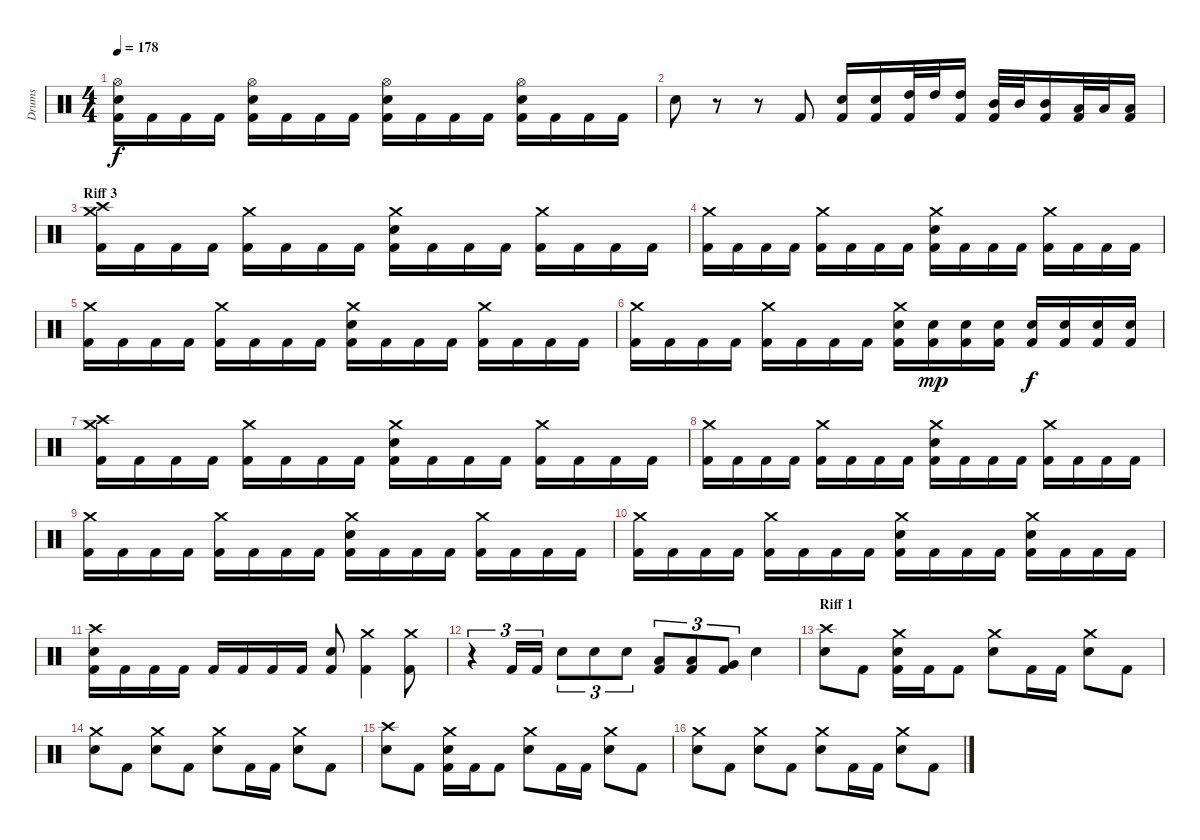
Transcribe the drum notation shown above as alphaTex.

\track ("Drums" "Drums") {instrument percussion}
\staff {score}
\articulation defaults
\ts (4 4)
\tempo 178
\clef neutral
\ks c
("Hi-Hat (open)" "Electric Snare (hit)" "Kick (hit) 2").16{dy f} "Kick (hit) 2".16 "Kick (hit) 2".16 "Kick (hit) 2".16 ("Hi-Hat (open)" "Electric Snare (hit)" "Kick (hit) 2").16 "Kick (hit) 2".16 "Kick (hit) 2".16 "Kick (hit) 2".16 ("Hi-Hat (open)" "Electric Snare (hit)" "Kick (hit) 2").16 "Kick (hit) 2".16 "Kick (hit) 2".16 "Kick (hit) 2".16 ("Hi-Hat (open)" "Electric Snare (hit)" "Kick (hit) 2").16 "Kick (hit) 2".16 "Kick (hit) 2".16 "Kick (hit) 2".16 |
"Electric Snare (hit)".8 r.8 r.8 "Kick (hit) 2".8 ("Electric Snare (hit)" "Kick (hit) 2").16 ("Electric Snare (hit)" "Kick (hit) 2").16 ("High Tom (hit)" "Kick (hit) 2").32 "High Tom (hit)".32 ("High Tom (hit)" "Kick (hit) 2").16 ("Mid Tom (hit)" "Kick (hit) 2").32 "Mid Tom (hit)".32 ("Mid Tom (hit)" "Kick (hit) 2").16 ("Low Tom (hit)" "Kick (hit) 2").32 "Low Tom (hit)".32 ("Low Tom (hit)" "Kick (hit) 2").16 |
\section ("" "Riff 3")
("Crash high (hit)" "Crash medium (hit)" "Kick (hit) 2").16 "Kick (hit) 2".16 "Kick (hit) 2".16 "Kick (hit) 2".16 ("Crash medium (hit)" "Kick (hit) 2").16 "Kick (hit) 2".16 "Kick (hit) 2".16 "Kick (hit) 2".16 ("Crash medium (hit)" "Electric Snare (hit)" "Kick (hit) 2").16 "Kick (hit) 2".16 "Kick (hit) 2".16 "Kick (hit) 2".16 ("Crash medium (hit)" "Kick (hit) 2").16 "Kick (hit) 2".16 "Kick (hit) 2".16 "Kick (hit) 2".16 |
("Crash medium (hit)" "Kick (hit) 2").16 "Kick (hit) 2".16 "Kick (hit) 2".16 "Kick (hit) 2".16 ("Crash medium (hit)" "Kick (hit) 2").16 "Kick (hit) 2".16 "Kick (hit) 2".16 "Kick (hit) 2".16 ("Crash medium (hit)" "Electric Snare (hit)" "Kick (hit) 2").16 "Kick (hit) 2".16 "Kick (hit) 2".16 "Kick (hit) 2".16 ("Crash medium (hit)" "Kick (hit) 2").16 "Kick (hit) 2".16 "Kick (hit) 2".16 "Kick (hit) 2".16 |
("Crash medium (hit)" "Kick (hit) 2").16 "Kick (hit) 2".16 "Kick (hit) 2".16 "Kick (hit) 2".16 ("Crash medium (hit)" "Kick (hit) 2").16 "Kick (hit) 2".16 "Kick (hit) 2".16 "Kick (hit) 2".16 ("Crash medium (hit)" "Electric Snare (hit)" "Kick (hit) 2").16 "Kick (hit) 2".16 "Kick (hit) 2".16 "Kick (hit) 2".16 ("Crash medium (hit)" "Kick (hit) 2").16 "Kick (hit) 2".16 "Kick (hit) 2".16 "Kick (hit) 2".16 |
("Crash medium (hit)" "Kick (hit) 2").16 "Kick (hit) 2".16 "Kick (hit) 2".16 "Kick (hit) 2".16 ("Crash medium (hit)" "Kick (hit) 2").16 "Kick (hit) 2".16 "Kick (hit) 2".16 "Kick (hit) 2".16 ("Crash medium (hit)" "Electric Snare (hit)" "Kick (hit) 2").16 ("Electric Snare (hit)" "Kick (hit) 2").16{dy mp} ("Electric Snare (hit)" "Kick (hit) 2").16 ("Electric Snare (hit)" "Kick (hit) 2").16 ("Electric Snare (hit)" "Kick (hit) 2").16{dy f} ("Electric Snare (hit)" "Kick (hit) 2").16 ("Electric Snare (hit)" "Kick (hit) 2").16 ("Electric Snare (hit)" "Kick (hit) 2").16 |
("Crash high (hit)" "Crash medium (hit)" "Kick (hit) 2").16 "Kick (hit) 2".16 "Kick (hit) 2".16 "Kick (hit) 2".16 ("Crash medium (hit)" "Kick (hit) 2").16 "Kick (hit) 2".16 "Kick (hit) 2".16 "Kick (hit) 2".16 ("Crash medium (hit)" "Electric Snare (hit)" "Kick (hit) 2").16 "Kick (hit) 2".16 "Kick (hit) 2".16 "Kick (hit) 2".16 ("Crash medium (hit)" "Kick (hit) 2").16 "Kick (hit) 2".16 "Kick (hit) 2".16 "Kick (hit) 2".16 |
("Crash medium (hit)" "Kick (hit) 2").16 "Kick (hit) 2".16 "Kick (hit) 2".16 "Kick (hit) 2".16 ("Crash medium (hit)" "Kick (hit) 2").16 "Kick (hit) 2".16 "Kick (hit) 2".16 "Kick (hit) 2".16 ("Crash medium (hit)" "Electric Snare (hit)" "Kick (hit) 2").16 "Kick (hit) 2".16 "Kick (hit) 2".16 "Kick (hit) 2".16 ("Crash medium (hit)" "Kick (hit) 2").16 "Kick (hit) 2".16 "Kick (hit) 2".16 "Kick (hit) 2".16 |
("Crash medium (hit)" "Kick (hit) 2").16 "Kick (hit) 2".16 "Kick (hit) 2".16 "Kick (hit) 2".16 ("Crash medium (hit)" "Kick (hit) 2").16 "Kick (hit) 2".16 "Kick (hit) 2".16 "Kick (hit) 2".16 ("Crash medium (hit)" "Electric Snare (hit)" "Kick (hit) 2").16 "Kick (hit) 2".16 "Kick (hit) 2".16 "Kick (hit) 2".16 ("Crash medium (hit)" "Kick (hit) 2").16 "Kick (hit) 2".16 "Kick (hit) 2".16 "Kick (hit) 2".16 |
("Crash medium (hit)" "Kick (hit) 2").16 "Kick (hit) 2".16 "Kick (hit) 2".16 "Kick (hit) 2".16 ("Crash medium (hit)" "Kick (hit) 2").16 "Kick (hit) 2".16 "Kick (hit) 2".16 "Kick (hit) 2".16 ("Crash medium (hit)" "Electric Snare (hit)" "Kick (hit) 2").16 "Kick (hit) 2".16 "Kick (hit) 2".16 "Kick (hit) 2".16 ("Crash medium (hit)" "Electric Snare (hit)" "Kick (hit) 2").16 "Kick (hit) 2".16 "Kick (hit) 2".16 "Kick (hit) 2".16 |
("Crash high (hit)" "Electric Snare (hit)" "Kick (hit) 2").16 "Kick (hit) 2".16 "Kick (hit) 2".16 "Kick (hit) 2".16 "Kick (hit) 2".16 "Kick (hit) 2".16 "Kick (hit) 2".16 "Kick (hit) 2".16 ("Electric Snare (hit)" "Kick (hit) 2").8 ("Crash medium (hit)" "Kick (hit) 2").4 ("Crash medium (hit)" "Kick (hit) 2").8 |
r.4{tu (3 2)} "Kick (hit) 2".16{tu (3 2)} "Kick (hit) 2".16{tu (3 2)} "Electric Snare (hit)".8{tu (3 2)} "Electric Snare (hit)".8{tu (3 2)} "Electric Snare (hit)".8{tu (3 2)} ("Low Tom (hit)" "Kick (hit) 2").8{tu (3 2)} ("Low Tom (hit)" "Kick (hit) 2").8{tu (3 2)} ("Very Low Tom (hit)" "Kick (hit) 2").8{tu (3 2)} "Electric Snare (hit)".4 |
\section ("" "Riff 1")
("Crash high (hit)" "Electric Snare (hit)").8 "Kick (hit) 2".8 ("Crash medium (hit)" "Electric Snare (hit)" "Kick (hit) 2").16 "Kick (hit) 2".16 "Kick (hit) 2".8 ("Crash medium (hit)" "Electric Snare (hit)").8 "Kick (hit) 2".16 "Kick (hit) 2".16 ("Crash medium (hit)" "Electric Snare (hit)").8 "Kick (hit) 2".8 |
("Crash medium (hit)" "Electric Snare (hit)").8 "Kick (hit) 2".8 ("Crash medium (hit)" "Electric Snare (hit)").8 "Kick (hit) 2".8 ("Crash medium (hit)" "Electric Snare (hit)").8 "Kick (hit) 2".16 "Kick (hit) 2".16 ("Crash medium (hit)" "Electric Snare (hit)").8 "Kick (hit) 2".8 |
("Crash high (hit)" "Electric Snare (hit)").8 "Kick (hit) 2".8 ("Crash medium (hit)" "Electric Snare (hit)" "Kick (hit) 2").16 "Kick (hit) 2".16 "Kick (hit) 2".8 ("Crash medium (hit)" "Electric Snare (hit)").8 "Kick (hit) 2".16 "Kick (hit) 2".16 ("Crash medium (hit)" "Electric Snare (hit)").8 "Kick (hit) 2".8 |
("Crash medium (hit)" "Electric Snare (hit)").8 "Kick (hit) 2".8 ("Crash medium (hit)" "Electric Snare (hit)").8 "Kick (hit) 2".8 ("Crash medium (hit)" "Electric Snare (hit)").8 "Kick (hit) 2".16 "Kick (hit) 2".16 ("Crash medium (hit)" "Electric Snare (hit)").8 "Kick (hit) 2".8
